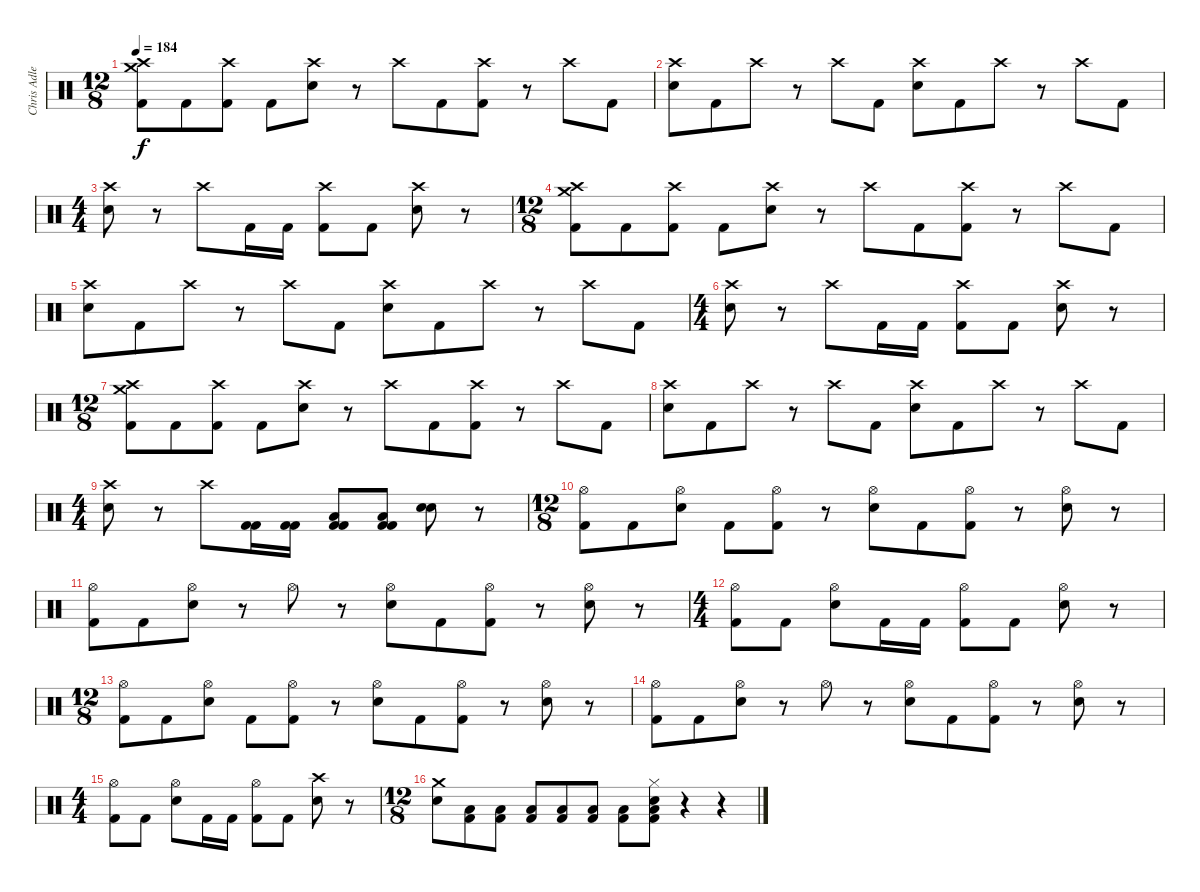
\track ("Chris Adler" "Chris Adle") {instrument percussion}
\staff {score}
\articulation defaults
\ts (12 8)
\tempo 184
\clef neutral
\ks c
("Crash high (hit)" "Crash medium (hit)" "Kick (hit) 2").8{dy f} "Kick (hit) 2".8 ("Crash high (hit)" "Kick (hit) 2").8 "Kick (hit) 2".8 ("Crash high (hit)" "Electric Snare (hit)").8 r.8 "Crash high (hit)".8 "Kick (hit) 2".8 ("Crash high (hit)" "Kick (hit) 2").8 r.8 "Crash high (hit)".8 "Kick (hit) 2".8 |
("Crash high (hit)" "Electric Snare (hit)").8 "Kick (hit) 2".8 "Crash high (hit)".8 r.8 "Crash high (hit)".8 "Kick (hit) 2".8 ("Crash high (hit)" "Electric Snare (hit)").8 "Kick (hit) 2".8 "Crash high (hit)".8 r.8 "Crash high (hit)".8 "Kick (hit) 2".8 |
\ts (4 4)
("Crash high (hit)" "Electric Snare (hit)").8 r.8 "Crash high (hit)".8 "Kick (hit) 2".16 "Kick (hit) 2".16 ("Crash high (hit)" "Kick (hit) 2").8 "Kick (hit) 2".8 ("Crash high (hit)" "Electric Snare (hit)").8 r.8 |
\ts (12 8)
("Crash high (hit)" "Crash medium (hit)" "Kick (hit) 2").8 "Kick (hit) 2".8 ("Crash high (hit)" "Kick (hit) 2").8 "Kick (hit) 2".8 ("Crash high (hit)" "Electric Snare (hit)").8 r.8 "Crash high (hit)".8 "Kick (hit) 2".8 ("Crash high (hit)" "Kick (hit) 2").8 r.8 "Crash high (hit)".8 "Kick (hit) 2".8 |
("Crash high (hit)" "Electric Snare (hit)").8 "Kick (hit) 2".8 "Crash high (hit)".8 r.8 "Crash high (hit)".8 "Kick (hit) 2".8 ("Crash high (hit)" "Electric Snare (hit)").8 "Kick (hit) 2".8 "Crash high (hit)".8 r.8 "Crash high (hit)".8 "Kick (hit) 2".8 |
\ts (4 4)
("Crash high (hit)" "Electric Snare (hit)").8 r.8 "Crash high (hit)".8 "Kick (hit) 2".16 "Kick (hit) 2".16 ("Crash high (hit)" "Kick (hit) 2").8 "Kick (hit) 2".8 ("Crash high (hit)" "Electric Snare (hit)").8 r.8 |
\ts (12 8)
("Crash high (hit)" "Crash medium (hit)" "Kick (hit) 2").8 "Kick (hit) 2".8 ("Crash high (hit)" "Kick (hit) 2").8 "Kick (hit) 2".8 ("Crash high (hit)" "Electric Snare (hit)").8 r.8 "Crash high (hit)".8 "Kick (hit) 2".8 ("Crash high (hit)" "Kick (hit) 2").8 r.8 "Crash high (hit)".8 "Kick (hit) 2".8 |
("Crash high (hit)" "Electric Snare (hit)").8 "Kick (hit) 2".8 "Crash high (hit)".8 r.8 "Crash high (hit)".8 "Kick (hit) 2".8 ("Crash high (hit)" "Electric Snare (hit)").8 "Kick (hit) 2".8 "Crash high (hit)".8 r.8 "Crash high (hit)".8 "Kick (hit) 2".8 |
\ts (4 4)
("Crash high (hit)" "Electric Snare (hit)").8 r.8 "Crash high (hit)".8 ("Kick (hit) 2" "Kick (hit) 2").16 ("Kick (hit) 2" "Kick (hit) 2").16 ("Kick (hit) 2" "Low Floor Tom (hit)" "Kick (hit) 2").8 ("Kick (hit) 2" "Low Floor Tom (hit)" "Kick (hit) 2").8 ("Electric Snare (hit)" "Electric Snare (hit)").8 r.8 |
\ts (12 8)
("Hi-Hat (open)" "Kick (hit) 2").8 "Kick (hit) 2".8 ("Hi-Hat (open)" "Electric Snare (hit)").8 "Kick (hit) 2".8 ("Hi-Hat (open)" "Kick (hit) 2").8 r.8 ("Hi-Hat (open)" "Electric Snare (hit)").8 "Kick (hit) 2".8 ("Hi-Hat (open)" "Kick (hit) 2").8 r.8 ("Hi-Hat (open)" "Electric Snare (hit)").8 r.8 |
("Hi-Hat (open)" "Kick (hit) 2").8 "Kick (hit) 2".8 ("Hi-Hat (open)" "Electric Snare (hit)").8 r.8 "Hi-Hat (open)".8 r.8 ("Hi-Hat (open)" "Electric Snare (hit)").8 "Kick (hit) 2".8 ("Hi-Hat (open)" "Kick (hit) 2").8 r.8 ("Hi-Hat (open)" "Electric Snare (hit)").8 r.8 |
\ts (4 4)
("Hi-Hat (open)" "Kick (hit) 2").8 "Kick (hit) 2".8 ("Hi-Hat (open)" "Electric Snare (hit)").8 "Kick (hit) 2".16 "Kick (hit) 2".16 ("Hi-Hat (open)" "Kick (hit) 2").8 "Kick (hit) 2".8 ("Hi-Hat (open)" "Electric Snare (hit)").8 r.8 |
\ts (12 8)
("Hi-Hat (open)" "Kick (hit) 2").8 "Kick (hit) 2".8 ("Hi-Hat (open)" "Electric Snare (hit)").8 "Kick (hit) 2".8 ("Hi-Hat (open)" "Kick (hit) 2").8 r.8 ("Hi-Hat (open)" "Electric Snare (hit)").8 "Kick (hit) 2".8 ("Hi-Hat (open)" "Kick (hit) 2").8 r.8 ("Hi-Hat (open)" "Electric Snare (hit)").8 r.8 |
("Hi-Hat (open)" "Kick (hit) 2").8 "Kick (hit) 2".8 ("Hi-Hat (open)" "Electric Snare (hit)").8 r.8 "Hi-Hat (open)".8 r.8 ("Hi-Hat (open)" "Electric Snare (hit)").8 "Kick (hit) 2".8 ("Hi-Hat (open)" "Kick (hit) 2").8 r.8 ("Hi-Hat (open)" "Electric Snare (hit)").8 r.8 |
\ts (4 4)
("Hi-Hat (open)" "Kick (hit) 2").8 "Kick (hit) 2".8 ("Hi-Hat (open)" "Electric Snare (hit)").8 "Kick (hit) 2".16 "Kick (hit) 2".16 ("Hi-Hat (open)" "Kick (hit) 2").8 "Kick (hit) 2".8 ("Crash high (hit)" "Electric Snare (hit)").8 r.8 |
\ts (12 8)
("Electric Snare (hit)" "Crash medium (hit)").8 ("Low Floor Tom (hit)" "Kick (hit) 2").8 ("Low Floor Tom (hit)" "Kick (hit) 2").8 ("Low Floor Tom (hit)" "Kick (hit) 2").8 ("Low Floor Tom (hit)" "Kick (hit) 2").8 ("Low Floor Tom (hit)" "Kick (hit) 2").8 ("Low Floor Tom (hit)" "Kick (hit) 2").8 ("Electric Snare (hit)" "Hi-Hat (closed)" "Low Floor Tom (hit)" "Kick (hit) 2").8 r.4 r.4
